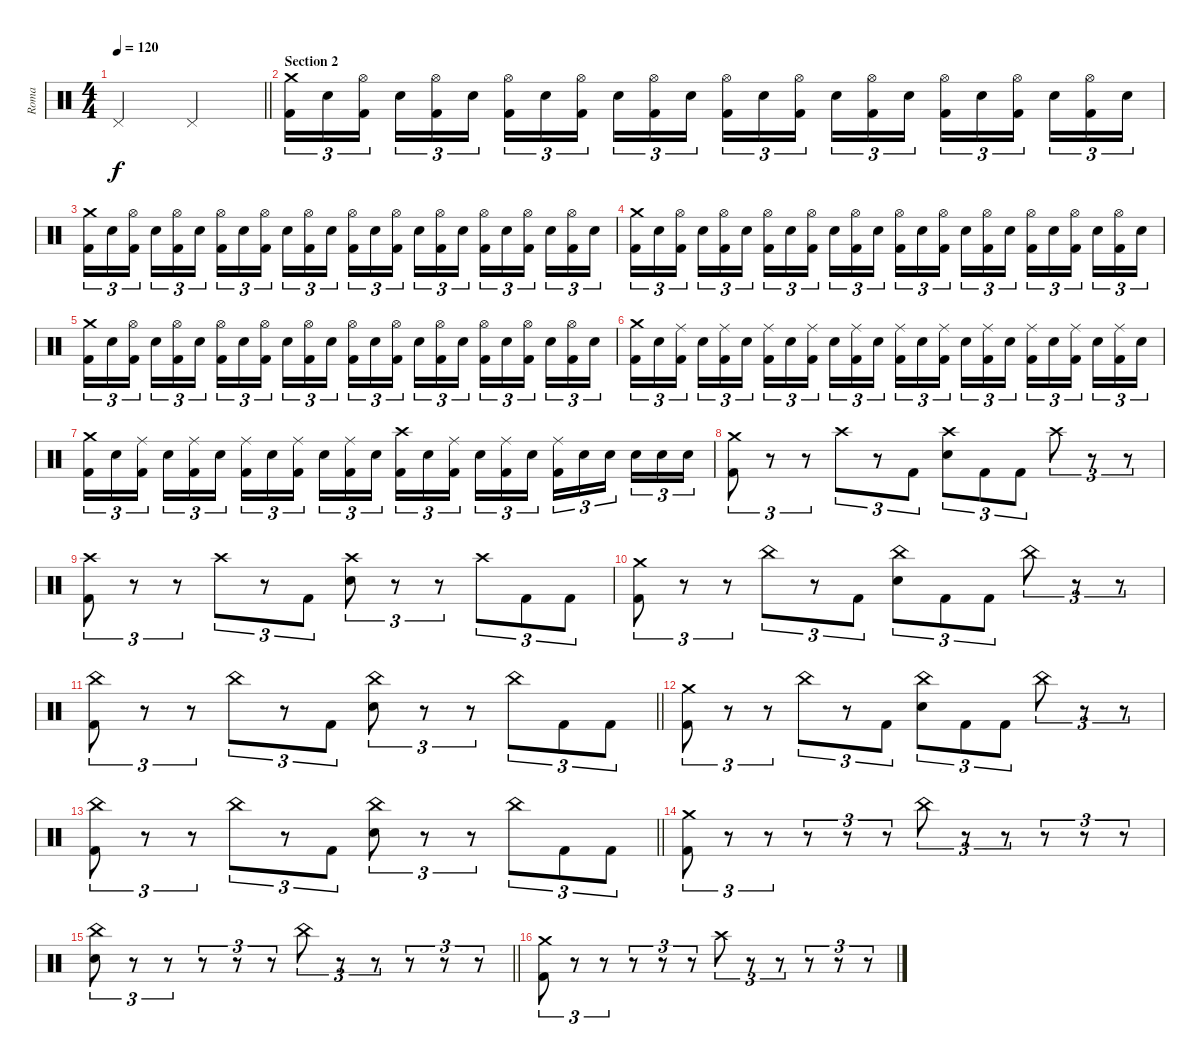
\track ("Roma" "Roma") {instrument percussion}
\staff {score}
\articulation defaults
\ts (4 4)
\tempo 120
\clef neutral
\barLineRight lightlight
\ks c "Pedal Hi-Hat (hit)".2{dy f} "Pedal Hi-Hat (hit)".2
|
\section ("" "Section 2")
("Crash medium (hit)" "Kick (hit) 2").16{tu (3 2)} "Electric Snare (hit)".16{tu (3 2)} ("Hi-Hat (open)" "Kick (hit) 2").16{tu (3 2) beam splitsecondary} "Electric Snare (hit)".16{tu (3 2)} ("Hi-Hat (open)" "Kick (hit) 2").16{tu (3 2)} "Electric Snare (hit)".16{tu (3 2)} ("Hi-Hat (open)" "Kick (hit) 2").16{tu (3 2)} "Electric Snare (hit)".16{tu (3 2)} ("Hi-Hat (open)" "Kick (hit) 2").16{tu (3 2) beam splitsecondary} "Electric Snare (hit)".16{tu (3 2)} ("Hi-Hat (open)" "Kick (hit) 2").16{tu (3 2)} "Electric Snare (hit)".16{tu (3 2)} ("Hi-Hat (open)" "Kick (hit) 2").16{tu (3 2)} "Electric Snare (hit)".16{tu (3 2)} ("Hi-Hat (open)" "Kick (hit) 2").16{tu (3 2) beam splitsecondary} "Electric Snare (hit)".16{tu (3 2)} ("Hi-Hat (open)" "Kick (hit) 2").16{tu (3 2)} "Electric Snare (hit)".16{tu (3 2)} ("Hi-Hat (open)" "Kick (hit) 2").16{tu (3 2)} "Electric Snare (hit)".16{tu (3 2)} ("Hi-Hat (open)" "Kick (hit) 2").16{tu (3 2) beam splitsecondary} "Electric Snare (hit)".16{tu (3 2)} ("Hi-Hat (open)" "Kick (hit) 2").16{tu (3 2)} "Electric Snare (hit)".16{tu (3 2)} |
("Crash medium (hit)" "Kick (hit) 2").16{tu (3 2)} "Electric Snare (hit)".16{tu (3 2)} ("Hi-Hat (open)" "Kick (hit) 2").16{tu (3 2) beam splitsecondary} "Electric Snare (hit)".16{tu (3 2)} ("Hi-Hat (open)" "Kick (hit) 2").16{tu (3 2)} "Electric Snare (hit)".16{tu (3 2)} ("Hi-Hat (open)" "Kick (hit) 2").16{tu (3 2)} "Electric Snare (hit)".16{tu (3 2)} ("Hi-Hat (open)" "Kick (hit) 2").16{tu (3 2) beam splitsecondary} "Electric Snare (hit)".16{tu (3 2)} ("Hi-Hat (open)" "Kick (hit) 2").16{tu (3 2)} "Electric Snare (hit)".16{tu (3 2)} ("Hi-Hat (open)" "Kick (hit) 2").16{tu (3 2)} "Electric Snare (hit)".16{tu (3 2)} ("Hi-Hat (open)" "Kick (hit) 2").16{tu (3 2) beam splitsecondary} "Electric Snare (hit)".16{tu (3 2)} ("Hi-Hat (open)" "Kick (hit) 2").16{tu (3 2)} "Electric Snare (hit)".16{tu (3 2)} ("Hi-Hat (open)" "Kick (hit) 2").16{tu (3 2)} "Electric Snare (hit)".16{tu (3 2)} ("Hi-Hat (open)" "Kick (hit) 2").16{tu (3 2) beam splitsecondary} "Electric Snare (hit)".16{tu (3 2)} ("Hi-Hat (open)" "Kick (hit) 2").16{tu (3 2)} "Electric Snare (hit)".16{tu (3 2)} |
("Crash medium (hit)" "Kick (hit) 2").16{tu (3 2)} "Electric Snare (hit)".16{tu (3 2)} ("Hi-Hat (open)" "Kick (hit) 2").16{tu (3 2) beam splitsecondary} "Electric Snare (hit)".16{tu (3 2)} ("Hi-Hat (open)" "Kick (hit) 2").16{tu (3 2)} "Electric Snare (hit)".16{tu (3 2)} ("Hi-Hat (open)" "Kick (hit) 2").16{tu (3 2)} "Electric Snare (hit)".16{tu (3 2)} ("Hi-Hat (open)" "Kick (hit) 2").16{tu (3 2) beam splitsecondary} "Electric Snare (hit)".16{tu (3 2)} ("Hi-Hat (open)" "Kick (hit) 2").16{tu (3 2)} "Electric Snare (hit)".16{tu (3 2)} ("Hi-Hat (open)" "Kick (hit) 2").16{tu (3 2)} "Electric Snare (hit)".16{tu (3 2)} ("Hi-Hat (open)" "Kick (hit) 2").16{tu (3 2) beam splitsecondary} "Electric Snare (hit)".16{tu (3 2)} ("Hi-Hat (open)" "Kick (hit) 2").16{tu (3 2)} "Electric Snare (hit)".16{tu (3 2)} ("Hi-Hat (open)" "Kick (hit) 2").16{tu (3 2)} "Electric Snare (hit)".16{tu (3 2)} ("Hi-Hat (open)" "Kick (hit) 2").16{tu (3 2) beam splitsecondary} "Electric Snare (hit)".16{tu (3 2)} ("Hi-Hat (open)" "Kick (hit) 2").16{tu (3 2)} "Electric Snare (hit)".16{tu (3 2)} |
("Crash medium (hit)" "Kick (hit) 2").16{tu (3 2)} "Electric Snare (hit)".16{tu (3 2)} ("Hi-Hat (open)" "Kick (hit) 2").16{tu (3 2) beam splitsecondary} "Electric Snare (hit)".16{tu (3 2)} ("Hi-Hat (open)" "Kick (hit) 2").16{tu (3 2)} "Electric Snare (hit)".16{tu (3 2)} ("Hi-Hat (open)" "Kick (hit) 2").16{tu (3 2)} "Electric Snare (hit)".16{tu (3 2)} ("Hi-Hat (open)" "Kick (hit) 2").16{tu (3 2) beam splitsecondary} "Electric Snare (hit)".16{tu (3 2)} ("Hi-Hat (open)" "Kick (hit) 2").16{tu (3 2)} "Electric Snare (hit)".16{tu (3 2)} ("Hi-Hat (open)" "Kick (hit) 2").16{tu (3 2)} "Electric Snare (hit)".16{tu (3 2)} ("Hi-Hat (open)" "Kick (hit) 2").16{tu (3 2) beam splitsecondary} "Electric Snare (hit)".16{tu (3 2)} ("Hi-Hat (open)" "Kick (hit) 2").16{tu (3 2)} "Electric Snare (hit)".16{tu (3 2)} ("Hi-Hat (open)" "Kick (hit) 2").16{tu (3 2)} "Electric Snare (hit)".16{tu (3 2)} ("Hi-Hat (open)" "Kick (hit) 2").16{tu (3 2) beam splitsecondary} "Electric Snare (hit)".16{tu (3 2)} ("Hi-Hat (open)" "Kick (hit) 2").16{tu (3 2)} "Electric Snare (hit)".16{tu (3 2)} |
("Crash medium (hit)" "Kick (hit) 2").16{tu (3 2)} "Electric Snare (hit)".16{tu (3 2)} ("Ride (middle)" "Kick (hit) 2").16{tu (3 2) beam splitsecondary} "Electric Snare (hit)".16{tu (3 2)} ("Ride (middle)" "Kick (hit) 2").16{tu (3 2)} "Electric Snare (hit)".16{tu (3 2)} ("Ride (middle)" "Kick (hit) 2").16{tu (3 2)} "Electric Snare (hit)".16{tu (3 2)} ("Ride (middle)" "Kick (hit) 2").16{tu (3 2) beam splitsecondary} "Electric Snare (hit)".16{tu (3 2)} ("Ride (middle)" "Kick (hit) 2").16{tu (3 2)} "Electric Snare (hit)".16{tu (3 2)} ("Ride (middle)" "Kick (hit) 2").16{tu (3 2)} "Electric Snare (hit)".16{tu (3 2)} ("Ride (middle)" "Kick (hit) 2").16{tu (3 2) beam splitsecondary} "Electric Snare (hit)".16{tu (3 2)} ("Ride (middle)" "Kick (hit) 2").16{tu (3 2)} "Electric Snare (hit)".16{tu (3 2)} ("Ride (middle)" "Kick (hit) 2").16{tu (3 2)} "Electric Snare (hit)".16{tu (3 2)} ("Ride (middle)" "Kick (hit) 2").16{tu (3 2) beam splitsecondary} "Electric Snare (hit)".16{tu (3 2)} ("Ride (middle)" "Kick (hit) 2").16{tu (3 2)} "Electric Snare (hit)".16{tu (3 2)} |
("Crash medium (hit)" "Kick (hit) 2").16{tu (3 2)} "Electric Snare (hit)".16{tu (3 2)} ("Ride (middle)" "Kick (hit) 2").16{tu (3 2) beam splitsecondary} "Electric Snare (hit)".16{tu (3 2)} ("Ride (middle)" "Kick (hit) 2").16{tu (3 2)} "Electric Snare (hit)".16{tu (3 2)} ("Ride (middle)" "Kick (hit) 2").16{tu (3 2)} "Electric Snare (hit)".16{tu (3 2)} ("Ride (middle)" "Kick (hit) 2").16{tu (3 2) beam splitsecondary} "Electric Snare (hit)".16{tu (3 2)} ("Ride (middle)" "Kick (hit) 2").16{tu (3 2)} "Electric Snare (hit)".16{tu (3 2)} ("Crash high (hit)" "Kick (hit) 2").16{tu (3 2)} "Electric Snare (hit)".16{tu (3 2)} ("Ride (middle)" "Kick (hit) 2").16{tu (3 2) beam splitsecondary} "Electric Snare (hit)".16{tu (3 2)} ("Ride (middle)" "Kick (hit) 2").16{tu (3 2)} "Electric Snare (hit)".16{tu (3 2)} ("Ride (middle)" "Kick (hit) 2").16{tu (3 2)} "Electric Snare (hit)".16{tu (3 2)} "Electric Snare (hit)".16{tu (3 2) beam splitsecondary} "Electric Snare (hit)".16{tu (3 2)} "Electric Snare (hit)".16{tu (3 2)} "Electric Snare (hit)".16{tu (3 2)} |
("Crash medium (hit)" "Kick (hit) 2").8{tu (3 2)} r.8{tu (3 2)} r.8{tu (3 2)} "Crash high (hit)".8{tu (3 2)} r.8{tu (3 2)} "Kick (hit) 2".8{tu (3 2)} ("Crash high (hit)" "Electric Snare (hit)").8{tu (3 2)} "Kick (hit) 2".8{tu (3 2)} "Kick (hit) 2".8{tu (3 2)} "Crash high (hit)".8{tu (3 2)} r.8{tu (3 2)} r.8{tu (3 2)} |
("Crash high (hit)" "Kick (hit) 2").8{tu (3 2)} r.8{tu (3 2)} r.8{tu (3 2)} "Crash high (hit)".8{tu (3 2)} r.8{tu (3 2)} "Kick (hit) 2".8{tu (3 2)} ("Crash high (hit)" "Electric Snare (hit)").8{tu (3 2)} r.8{tu (3 2)} r.8{tu (3 2)} "Crash high (hit)".8{tu (3 2)} "Kick (hit) 2".8{tu (3 2)} "Kick (hit) 2".8{tu (3 2)} |
("Crash medium (hit)" "Kick (hit) 2").8{tu (3 2)} r.8{tu (3 2)} r.8{tu (3 2)} "China (hit)".8{tu (3 2)} r.8{tu (3 2)} "Kick (hit) 2".8{tu (3 2)} ("China (hit)" "Electric Snare (hit)").8{tu (3 2)} "Kick (hit) 2".8{tu (3 2)} "Kick (hit) 2".8{tu (3 2)} "China (hit)".8{tu (3 2)} r.8{tu (3 2)} r.8{tu (3 2)} |
\barLineRight lightlight
("China (hit)" "Kick (hit) 2").8{tu (3 2)} r.8{tu (3 2)} r.8{tu (3 2)} "China (hit)".8{tu (3 2)} r.8{tu (3 2)} "Kick (hit) 2".8{tu (3 2)} ("China (hit)" "Electric Snare (hit)").8{tu (3 2)} r.8{tu (3 2)} r.8{tu (3 2)} "China (hit)".8{tu (3 2)} "Kick (hit) 2".8{tu (3 2)} "Kick (hit) 2".8{tu (3 2)} |
("Crash medium (hit)" "Kick (hit) 2").8{tu (3 2)} r.8{tu (3 2)} r.8{tu (3 2)} "China (hit)".8{tu (3 2)} r.8{tu (3 2)} "Kick (hit) 2".8{tu (3 2)} ("China (hit)" "Electric Snare (hit)").8{tu (3 2)} "Kick (hit) 2".8{tu (3 2)} "Kick (hit) 2".8{tu (3 2)} "China (hit)".8{tu (3 2)} r.8{tu (3 2)} r.8{tu (3 2)} |
\barLineRight lightlight
("China (hit)" "Kick (hit) 2").8{tu (3 2)} r.8{tu (3 2)} r.8{tu (3 2)} "China (hit)".8{tu (3 2)} r.8{tu (3 2)} "Kick (hit) 2".8{tu (3 2)} ("China (hit)" "Electric Snare (hit)").8{tu (3 2)} r.8{tu (3 2)} r.8{tu (3 2)} "China (hit)".8{tu (3 2)} "Kick (hit) 2".8{tu (3 2)} "Kick (hit) 2".8{tu (3 2)} |
("Crash medium (hit)" "Kick (hit) 2").8{tu (3 2)} r.8{tu (3 2)} r.8{tu (3 2)} r.8{tu (3 2)} r.8{tu (3 2)} r.8{tu (3 2)} "China (hit)".8{tu (3 2)} r.8{tu (3 2)} r.8{tu (3 2)} r.8{tu (3 2)} r.8{tu (3 2)} r.8{tu (3 2)} |
\barLineRight lightlight
("China (hit)" "Electric Snare (hit)").8{tu (3 2)} r.8{tu (3 2)} r.8{tu (3 2)} r.8{tu (3 2)} r.8{tu (3 2)} r.8{tu (3 2)} "China (hit)".8{tu (3 2)} r.8{tu (3 2)} r.8{tu (3 2)} r.8{tu (3 2)} r.8{tu (3 2)} r.8{tu (3 2)} |
("Crash medium (hit)" "Kick (hit) 2").8{tu (3 2)} r.8{tu (3 2)} r.8{tu (3 2)} r.8{tu (3 2)} r.8{tu (3 2)} r.8{tu (3 2)} "Crash high (hit)".8{tu (3 2)} r.8{tu (3 2)} r.8{tu (3 2)} r.8{tu (3 2)} r.8{tu (3 2)} r.8{tu (3 2)}
